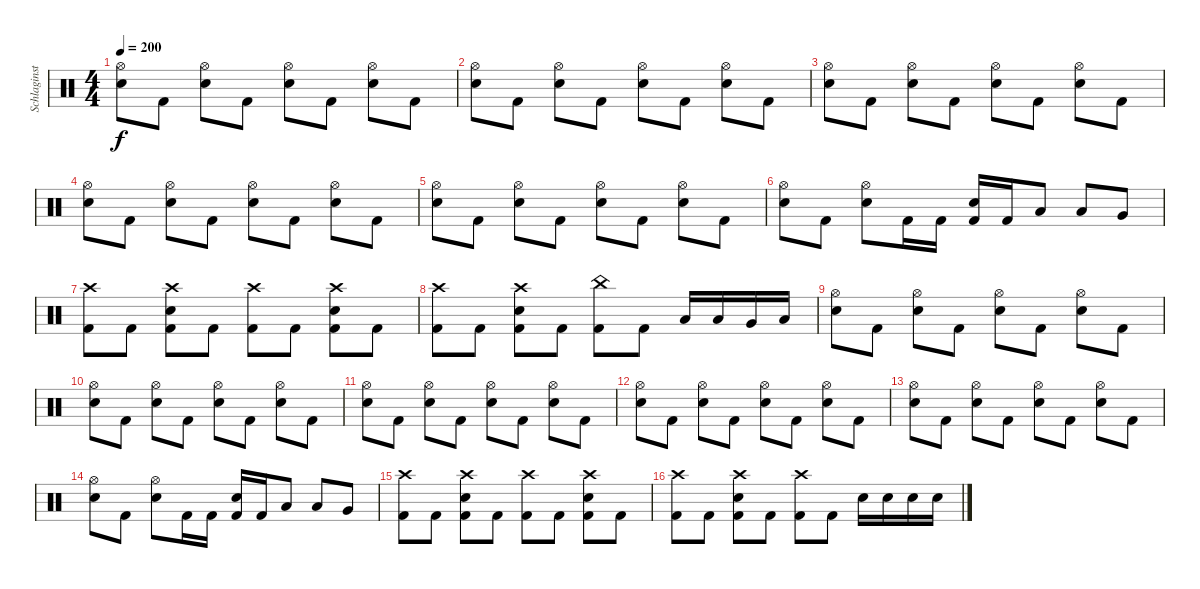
\track ("Schlaginstrumente - Auswahl" "Schlaginst") {instrument percussion}
\staff {score}
\articulation defaults
\ts (4 4)
\tempo 200
\clef neutral
\ks c
("Snare (hit) 2" "Hi-Hat (open)").8{dy f} "Kick (hit) 2".8 ("Snare (hit) 2" "Hi-Hat (open)").8 "Kick (hit) 2".8 ("Snare (hit) 2" "Hi-Hat (open)").8 "Kick (hit) 2".8 ("Snare (hit) 2" "Hi-Hat (open)").8 "Kick (hit) 2".8 |
("Snare (hit) 2" "Hi-Hat (open)").8 "Kick (hit) 2".8 ("Snare (hit) 2" "Hi-Hat (open)").8 "Kick (hit) 2".8 ("Snare (hit) 2" "Hi-Hat (open)").8 "Kick (hit) 2".8 ("Snare (hit) 2" "Hi-Hat (open)").8 "Kick (hit) 2".8 |
("Snare (hit) 2" "Hi-Hat (open)").8 "Kick (hit) 2".8 ("Snare (hit) 2" "Hi-Hat (open)").8 "Kick (hit) 2".8 ("Snare (hit) 2" "Hi-Hat (open)").8 "Kick (hit) 2".8 ("Snare (hit) 2" "Hi-Hat (open)").8 "Kick (hit) 2".8 |
("Snare (hit) 2" "Hi-Hat (open)").8 "Kick (hit) 2".8 ("Snare (hit) 2" "Hi-Hat (open)").8 "Kick (hit) 2".8 ("Snare (hit) 2" "Hi-Hat (open)").8 "Kick (hit) 2".8 ("Snare (hit) 2" "Hi-Hat (open)").8 "Kick (hit) 2".8 |
("Snare (hit) 2" "Hi-Hat (open)").8 "Kick (hit) 2".8 ("Snare (hit) 2" "Hi-Hat (open)").8 "Kick (hit) 2".8 ("Snare (hit) 2" "Hi-Hat (open)").8 "Kick (hit) 2".8 ("Snare (hit) 2" "Hi-Hat (open)").8 "Kick (hit) 2".8 |
("Snare (hit) 2" "Hi-Hat (open)").8 "Kick (hit) 2".8 ("Snare (hit) 2" "Hi-Hat (open)").8 "Kick (hit) 2".16 "Kick (hit) 2".16 ("Snare (hit) 2" "Kick (hit) 2").16 "Kick (hit) 2".16 "Low Tom (hit)".8 "Low Tom (hit)".8 "Very Low Tom (hit)".8 |
("Crash high (hit)" "Kick (hit) 2").8 "Kick (hit) 2".8 ("Snare (hit) 2" "Crash high (hit)" "Kick (hit) 2").8 "Kick (hit) 2".8 ("Crash high (hit)" "Kick (hit) 2").8 "Kick (hit) 2".8 ("Snare (hit) 2" "Crash high (hit)" "Kick (hit) 2").8 "Kick (hit) 2".8 |
("Crash high (hit)" "Kick (hit) 2").8 "Kick (hit) 2".8 ("Snare (hit) 2" "Crash high (hit)" "Kick (hit) 2").8 "Kick (hit) 2".8 ("China (hit)" "Kick (hit) 2").8 "Kick (hit) 2".8 "Low Tom (hit)".16 "Low Tom (hit)".16 "Very Low Tom (hit)".16 "Low Floor Tom (hit)".16 |
("Snare (hit) 2" "Hi-Hat (open)").8 "Kick (hit) 2".8 ("Snare (hit) 2" "Hi-Hat (open)").8 "Kick (hit) 2".8 ("Snare (hit) 2" "Hi-Hat (open)").8 "Kick (hit) 2".8 ("Snare (hit) 2" "Hi-Hat (open)").8 "Kick (hit) 2".8 |
("Snare (hit) 2" "Hi-Hat (open)").8 "Kick (hit) 2".8 ("Snare (hit) 2" "Hi-Hat (open)").8 "Kick (hit) 2".8 ("Snare (hit) 2" "Hi-Hat (open)").8 "Kick (hit) 2".8 ("Snare (hit) 2" "Hi-Hat (open)").8 "Kick (hit) 2".8 |
("Snare (hit) 2" "Hi-Hat (open)").8 "Kick (hit) 2".8 ("Snare (hit) 2" "Hi-Hat (open)").8 "Kick (hit) 2".8 ("Snare (hit) 2" "Hi-Hat (open)").8 "Kick (hit) 2".8 ("Snare (hit) 2" "Hi-Hat (open)").8 "Kick (hit) 2".8 |
("Snare (hit) 2" "Hi-Hat (open)").8 "Kick (hit) 2".8 ("Snare (hit) 2" "Hi-Hat (open)").8 "Kick (hit) 2".8 ("Snare (hit) 2" "Hi-Hat (open)").8 "Kick (hit) 2".8 ("Snare (hit) 2" "Hi-Hat (open)").8 "Kick (hit) 2".8 |
("Snare (hit) 2" "Hi-Hat (open)").8 "Kick (hit) 2".8 ("Snare (hit) 2" "Hi-Hat (open)").8 "Kick (hit) 2".8 ("Snare (hit) 2" "Hi-Hat (open)").8 "Kick (hit) 2".8 ("Snare (hit) 2" "Hi-Hat (open)").8 "Kick (hit) 2".8 |
("Snare (hit) 2" "Hi-Hat (open)").8 "Kick (hit) 2".8 ("Snare (hit) 2" "Hi-Hat (open)").8 "Kick (hit) 2".16 "Kick (hit) 2".16 ("Snare (hit) 2" "Kick (hit) 2").16 "Kick (hit) 2".16 "Low Tom (hit)".8 "Low Tom (hit)".8 "Very Low Tom (hit)".8 |
("Crash high (hit)" "Kick (hit) 2").8 "Kick (hit) 2".8 ("Snare (hit) 2" "Crash high (hit)" "Kick (hit) 2").8 "Kick (hit) 2".8 ("Crash high (hit)" "Kick (hit) 2").8 "Kick (hit) 2".8 ("Snare (hit) 2" "Crash high (hit)" "Kick (hit) 2").8 "Kick (hit) 2".8 |
("Crash high (hit)" "Kick (hit) 2").8 "Kick (hit) 2".8 ("Snare (hit) 2" "Crash high (hit)" "Kick (hit) 2").8 "Kick (hit) 2".8 ("Crash high (hit)" "Kick (hit) 2").8 "Kick (hit) 2".8 "Snare (hit) 2".16 "Snare (hit) 2".16 "Snare (hit) 2".16 "Snare (hit) 2".16
